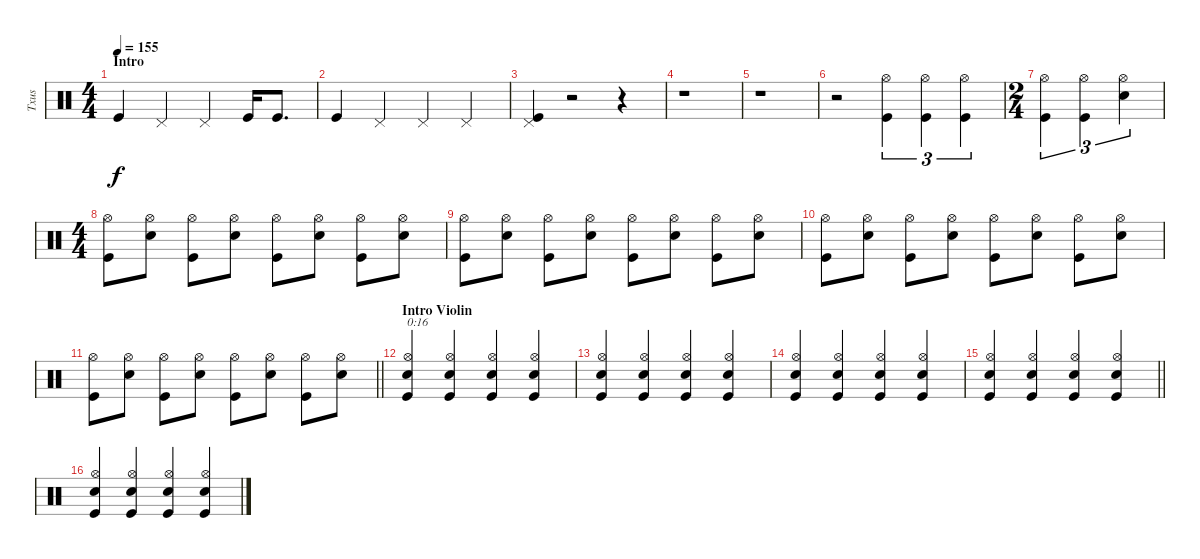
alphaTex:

\track ("Txus" "Txus") {instrument percussion}
\staff {score}
\articulation defaults
\ts (4 4)
\section ("" "Intro")
\tempo 155
\clef neutral
\ks c "Kick (hit)".4{dy f} "Pedal Hi-Hat (hit)".4 "Pedal Hi-Hat (hit)".4 "Kick (hit)".16 "Kick (hit)".8{d}
|
"Kick (hit)".4 "Pedal Hi-Hat (hit)".4 "Pedal Hi-Hat (hit)".4 "Pedal Hi-Hat (hit)".4 |
("Kick (hit)" "Pedal Hi-Hat (hit)").4 r.2 r.4 |
r.1 |
r.1 |
r.2 ("Kick (hit)" "Hi-Hat (open)").4{tu (3 2)} ("Kick (hit)" "Hi-Hat (open)").4{tu (3 2)} ("Kick (hit)" "Hi-Hat (open)").4{tu (3 2)} |
\ts (2 4)
("Kick (hit)" "Hi-Hat (open)").4{tu (3 2)} ("Kick (hit)" "Hi-Hat (open)").4{tu (3 2)} ("Snare (hit) 2" "Hi-Hat (open)").4{tu (3 2)} |
\ts (4 4)
("Kick (hit)" "Hi-Hat (open)").8 ("Snare (hit) 2" "Hi-Hat (open)").8 ("Kick (hit)" "Hi-Hat (open)").8 ("Snare (hit) 2" "Hi-Hat (open)").8 ("Kick (hit)" "Hi-Hat (open)").8 ("Snare (hit) 2" "Hi-Hat (open)").8 ("Kick (hit)" "Hi-Hat (open)").8 ("Snare (hit) 2" "Hi-Hat (open)").8 |
("Kick (hit)" "Hi-Hat (open)").8 ("Snare (hit) 2" "Hi-Hat (open)").8 ("Kick (hit)" "Hi-Hat (open)").8 ("Snare (hit) 2" "Hi-Hat (open)").8 ("Kick (hit)" "Hi-Hat (open)").8 ("Snare (hit) 2" "Hi-Hat (open)").8 ("Kick (hit)" "Hi-Hat (open)").8 ("Snare (hit) 2" "Hi-Hat (open)").8 |
("Kick (hit)" "Hi-Hat (open)").8 ("Snare (hit) 2" "Hi-Hat (open)").8 ("Kick (hit)" "Hi-Hat (open)").8 ("Snare (hit) 2" "Hi-Hat (open)").8 ("Kick (hit)" "Hi-Hat (open)").8 ("Snare (hit) 2" "Hi-Hat (open)").8 ("Kick (hit)" "Hi-Hat (open)").8 ("Snare (hit) 2" "Hi-Hat (open)").8 |
\barLineRight lightlight
("Kick (hit)" "Hi-Hat (open)").8 ("Snare (hit) 2" "Hi-Hat (open)").8 ("Kick (hit)" "Hi-Hat (open)").8 ("Snare (hit) 2" "Hi-Hat (open)").8 ("Kick (hit)" "Hi-Hat (open)").8 ("Snare (hit) 2" "Hi-Hat (open)").8 ("Kick (hit)" "Hi-Hat (open)").8 ("Snare (hit) 2" "Hi-Hat (open)").8 |
\section ("" "Intro Violin")
("Kick (hit)" "Snare (hit) 2" "Hi-Hat (open)").4{txt "0:16"} ("Kick (hit)" "Snare (hit) 2" "Hi-Hat (open)").4 ("Kick (hit)" "Snare (hit) 2" "Hi-Hat (open)").4 ("Kick (hit)" "Snare (hit) 2" "Hi-Hat (open)").4 |
("Kick (hit)" "Snare (hit) 2" "Hi-Hat (open)").4 ("Kick (hit)" "Snare (hit) 2" "Hi-Hat (open)").4 ("Kick (hit)" "Snare (hit) 2" "Hi-Hat (open)").4 ("Kick (hit)" "Snare (hit) 2" "Hi-Hat (open)").4 |
("Kick (hit)" "Snare (hit) 2" "Hi-Hat (open)").4 ("Kick (hit)" "Snare (hit) 2" "Hi-Hat (open)").4 ("Kick (hit)" "Snare (hit) 2" "Hi-Hat (open)").4 ("Kick (hit)" "Snare (hit) 2" "Hi-Hat (open)").4 |
\barLineRight lightlight
("Kick (hit)" "Snare (hit) 2" "Hi-Hat (open)").4 ("Kick (hit)" "Snare (hit) 2" "Hi-Hat (open)").4 ("Kick (hit)" "Snare (hit) 2" "Hi-Hat (open)").4 ("Kick (hit)" "Snare (hit) 2" "Hi-Hat (open)").4 |
("Kick (hit)" "Snare (hit) 2" "Hi-Hat (open)").4 ("Kick (hit)" "Snare (hit) 2" "Hi-Hat (open)").4 ("Kick (hit)" "Snare (hit) 2" "Hi-Hat (open)").4 ("Kick (hit)" "Snare (hit) 2" "Hi-Hat (open)").4
